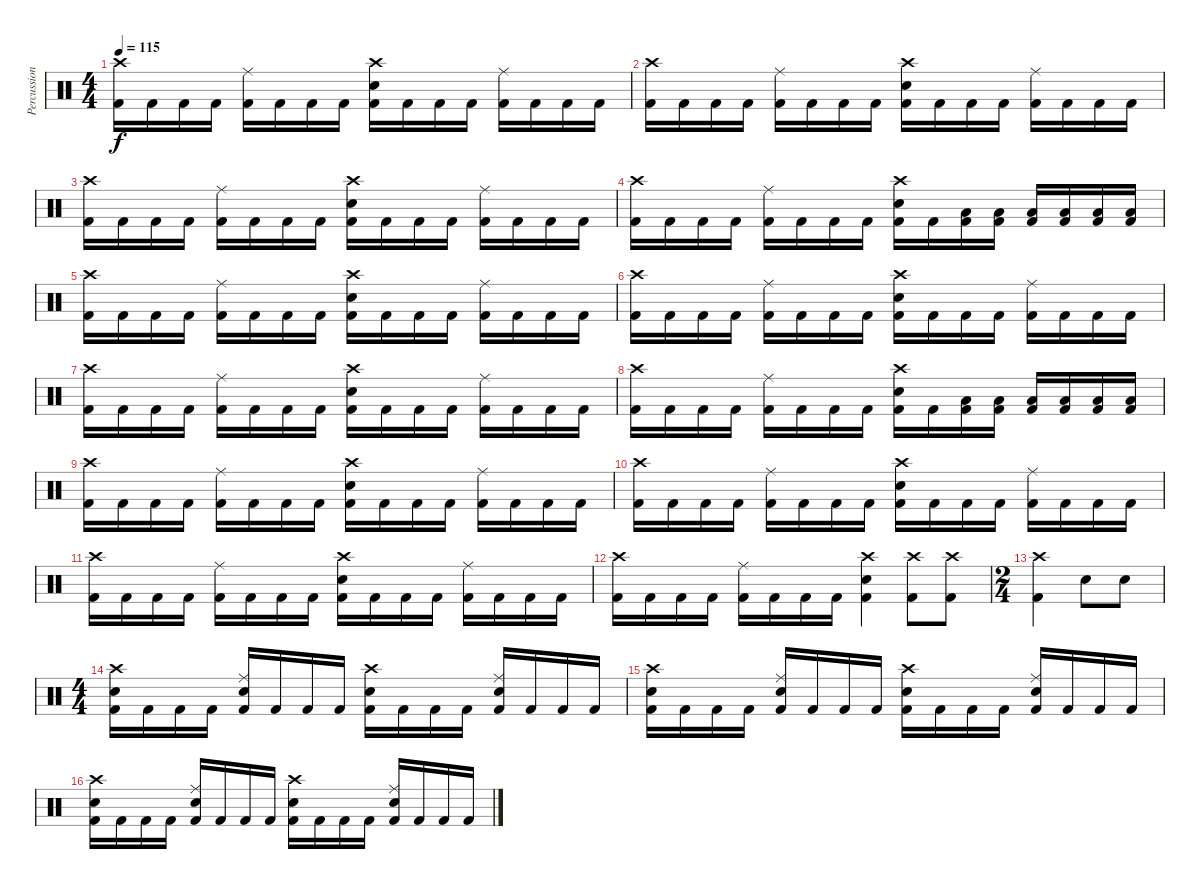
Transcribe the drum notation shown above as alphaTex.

\track ("Percussion" "Percussion") {instrument percussion}
\staff {score}
\articulation defaults
\ts (4 4)
\tempo 115
\clef neutral
\ks c
("Crash high (hit)" "Kick (hit) 2").16{dy f} "Kick (hit) 2".16 "Kick (hit) 2".16 "Kick (hit) 2".16 ("Ride (middle)" "Kick (hit) 2").16 "Kick (hit) 2".16 "Kick (hit) 2".16 "Kick (hit) 2".16 ("Crash high (hit)" "Electric Snare (hit)" "Kick (hit) 2").16 "Kick (hit) 2".16 "Kick (hit) 2".16 "Kick (hit) 2".16 ("Ride (middle)" "Kick (hit) 2").16 "Kick (hit) 2".16 "Kick (hit) 2".16 "Kick (hit) 2".16 |
("Crash high (hit)" "Kick (hit) 2").16 "Kick (hit) 2".16 "Kick (hit) 2".16 "Kick (hit) 2".16 ("Ride (middle)" "Kick (hit) 2").16 "Kick (hit) 2".16 "Kick (hit) 2".16 "Kick (hit) 2".16 ("Crash high (hit)" "Electric Snare (hit)" "Kick (hit) 2").16 "Kick (hit) 2".16 "Kick (hit) 2".16 "Kick (hit) 2".16 ("Ride (middle)" "Kick (hit) 2").16 "Kick (hit) 2".16 "Kick (hit) 2".16 "Kick (hit) 2".16 |
("Crash high (hit)" "Kick (hit) 2").16 "Kick (hit) 2".16 "Kick (hit) 2".16 "Kick (hit) 2".16 ("Ride (middle)" "Kick (hit) 2").16 "Kick (hit) 2".16 "Kick (hit) 2".16 "Kick (hit) 2".16 ("Crash high (hit)" "Electric Snare (hit)" "Kick (hit) 2").16 "Kick (hit) 2".16 "Kick (hit) 2".16 "Kick (hit) 2".16 ("Ride (middle)" "Kick (hit) 2").16 "Kick (hit) 2".16 "Kick (hit) 2".16 "Kick (hit) 2".16 |
("Crash high (hit)" "Kick (hit) 2").16 "Kick (hit) 2".16 "Kick (hit) 2".16 "Kick (hit) 2".16 ("Ride (middle)" "Kick (hit) 2").16 "Kick (hit) 2".16 "Kick (hit) 2".16 "Kick (hit) 2".16 ("Crash high (hit)" "Electric Snare (hit)" "Kick (hit) 2").16 "Kick (hit) 2".16 ("Low Floor Tom (hit)" "Kick (hit) 2").16 ("Low Floor Tom (hit)" "Kick (hit) 2").16 ("Low Floor Tom (hit)" "Kick (hit) 2").16 ("Low Floor Tom (hit)" "Kick (hit) 2").16 ("Low Floor Tom (hit)" "Kick (hit) 2").16 ("Low Floor Tom (hit)" "Kick (hit) 2").16 |
("Crash high (hit)" "Kick (hit) 2").16 "Kick (hit) 2".16 "Kick (hit) 2".16 "Kick (hit) 2".16 ("Ride (middle)" "Kick (hit) 2").16 "Kick (hit) 2".16 "Kick (hit) 2".16 "Kick (hit) 2".16 ("Crash high (hit)" "Electric Snare (hit)" "Kick (hit) 2").16 "Kick (hit) 2".16 "Kick (hit) 2".16 "Kick (hit) 2".16 ("Ride (middle)" "Kick (hit) 2").16 "Kick (hit) 2".16 "Kick (hit) 2".16 "Kick (hit) 2".16 |
("Crash high (hit)" "Kick (hit) 2").16 "Kick (hit) 2".16 "Kick (hit) 2".16 "Kick (hit) 2".16 ("Ride (middle)" "Kick (hit) 2").16 "Kick (hit) 2".16 "Kick (hit) 2".16 "Kick (hit) 2".16 ("Crash high (hit)" "Electric Snare (hit)" "Kick (hit) 2").16 "Kick (hit) 2".16 "Kick (hit) 2".16 "Kick (hit) 2".16 ("Ride (middle)" "Kick (hit) 2").16 "Kick (hit) 2".16 "Kick (hit) 2".16 "Kick (hit) 2".16 |
("Crash high (hit)" "Kick (hit) 2").16 "Kick (hit) 2".16 "Kick (hit) 2".16 "Kick (hit) 2".16 ("Ride (middle)" "Kick (hit) 2").16 "Kick (hit) 2".16 "Kick (hit) 2".16 "Kick (hit) 2".16 ("Crash high (hit)" "Electric Snare (hit)" "Kick (hit) 2").16 "Kick (hit) 2".16 "Kick (hit) 2".16 "Kick (hit) 2".16 ("Ride (middle)" "Kick (hit) 2").16 "Kick (hit) 2".16 "Kick (hit) 2".16 "Kick (hit) 2".16 |
("Crash high (hit)" "Kick (hit) 2").16 "Kick (hit) 2".16 "Kick (hit) 2".16 "Kick (hit) 2".16 ("Ride (middle)" "Kick (hit) 2").16 "Kick (hit) 2".16 "Kick (hit) 2".16 "Kick (hit) 2".16 ("Crash high (hit)" "Electric Snare (hit)" "Kick (hit) 2").16 "Kick (hit) 2".16 ("Low Floor Tom (hit)" "Kick (hit) 2").16 ("Low Floor Tom (hit)" "Kick (hit) 2").16 ("Low Floor Tom (hit)" "Kick (hit) 2").16 ("Low Floor Tom (hit)" "Kick (hit) 2").16 ("Low Floor Tom (hit)" "Kick (hit) 2").16 ("Low Floor Tom (hit)" "Kick (hit) 2").16 |
("Crash high (hit)" "Kick (hit) 2").16 "Kick (hit) 2".16 "Kick (hit) 2".16 "Kick (hit) 2".16 ("Ride (middle)" "Kick (hit) 2").16 "Kick (hit) 2".16 "Kick (hit) 2".16 "Kick (hit) 2".16 ("Crash high (hit)" "Electric Snare (hit)" "Kick (hit) 2").16 "Kick (hit) 2".16 "Kick (hit) 2".16 "Kick (hit) 2".16 ("Ride (middle)" "Kick (hit) 2").16 "Kick (hit) 2".16 "Kick (hit) 2".16 "Kick (hit) 2".16 |
("Crash high (hit)" "Kick (hit) 2").16 "Kick (hit) 2".16 "Kick (hit) 2".16 "Kick (hit) 2".16 ("Ride (middle)" "Kick (hit) 2").16 "Kick (hit) 2".16 "Kick (hit) 2".16 "Kick (hit) 2".16 ("Crash high (hit)" "Electric Snare (hit)" "Kick (hit) 2").16 "Kick (hit) 2".16 "Kick (hit) 2".16 "Kick (hit) 2".16 ("Ride (middle)" "Kick (hit) 2").16 "Kick (hit) 2".16 "Kick (hit) 2".16 "Kick (hit) 2".16 |
("Crash high (hit)" "Kick (hit) 2").16 "Kick (hit) 2".16 "Kick (hit) 2".16 "Kick (hit) 2".16 ("Ride (middle)" "Kick (hit) 2").16 "Kick (hit) 2".16 "Kick (hit) 2".16 "Kick (hit) 2".16 ("Crash high (hit)" "Electric Snare (hit)" "Kick (hit) 2").16 "Kick (hit) 2".16 "Kick (hit) 2".16 "Kick (hit) 2".16 ("Ride (middle)" "Kick (hit) 2").16 "Kick (hit) 2".16 "Kick (hit) 2".16 "Kick (hit) 2".16 |
("Crash high (hit)" "Kick (hit) 2").16 "Kick (hit) 2".16 "Kick (hit) 2".16 "Kick (hit) 2".16 ("Ride (middle)" "Kick (hit) 2").16 "Kick (hit) 2".16 "Kick (hit) 2".16 "Kick (hit) 2".16 ("Crash high (hit)" "Electric Snare (hit)" "Kick (hit) 2").4 ("Crash high (hit)" "Kick (hit) 2").8 ("Crash high (hit)" "Kick (hit) 2").8 |
\ts (2 4)
("Crash high (hit)" "Kick (hit) 2").4 "Electric Snare (hit)".8 "Electric Snare (hit)".8 |
\ts (4 4)
("Crash high (hit)" "Electric Snare (hit)" "Kick (hit) 2").16 "Kick (hit) 2".16 "Kick (hit) 2".16 "Kick (hit) 2".16 ("Ride (middle)" "Electric Snare (hit)" "Kick (hit) 2").16 "Kick (hit) 2".16 "Kick (hit) 2".16 "Kick (hit) 2".16 ("Crash high (hit)" "Electric Snare (hit)" "Kick (hit) 2").16 "Kick (hit) 2".16 "Kick (hit) 2".16 "Kick (hit) 2".16 ("Ride (middle)" "Electric Snare (hit)" "Kick (hit) 2").16 "Kick (hit) 2".16 "Kick (hit) 2".16 "Kick (hit) 2".16 |
("Crash high (hit)" "Electric Snare (hit)" "Kick (hit) 2").16 "Kick (hit) 2".16 "Kick (hit) 2".16 "Kick (hit) 2".16 ("Ride (middle)" "Electric Snare (hit)" "Kick (hit) 2").16 "Kick (hit) 2".16 "Kick (hit) 2".16 "Kick (hit) 2".16 ("Crash high (hit)" "Electric Snare (hit)" "Kick (hit) 2").16 "Kick (hit) 2".16 "Kick (hit) 2".16 "Kick (hit) 2".16 ("Ride (middle)" "Electric Snare (hit)" "Kick (hit) 2").16 "Kick (hit) 2".16 "Kick (hit) 2".16 "Kick (hit) 2".16 |
("Crash high (hit)" "Electric Snare (hit)" "Kick (hit) 2").16 "Kick (hit) 2".16 "Kick (hit) 2".16 "Kick (hit) 2".16 ("Ride (middle)" "Electric Snare (hit)" "Kick (hit) 2").16 "Kick (hit) 2".16 "Kick (hit) 2".16 "Kick (hit) 2".16 ("Crash high (hit)" "Electric Snare (hit)" "Kick (hit) 2").16 "Kick (hit) 2".16 "Kick (hit) 2".16 "Kick (hit) 2".16 ("Ride (middle)" "Electric Snare (hit)" "Kick (hit) 2").16 "Kick (hit) 2".16 "Kick (hit) 2".16 "Kick (hit) 2".16
